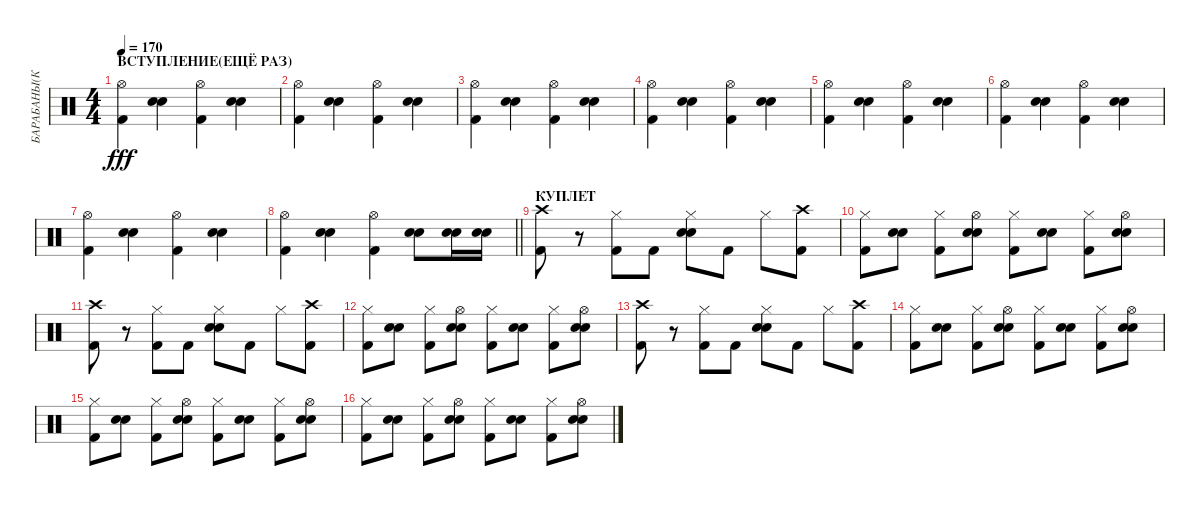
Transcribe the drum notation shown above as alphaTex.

\track ("БАРАБАНЫ(КАРДАН)" "БАРАБАНЫ(К") {instrument percussion}
\staff {score}
\articulation defaults
\ts (4 4)
\section ("" "ВСТУПЛЕНИЕ(ЕЩЁ РАЗ)")
\tempo 170
\clef neutral
\ks c
("Kick (hit) 2" "Hi-Hat (open)").4{dy fff} ("Snare (hit) 2" "Electric Snare (hit)").4 ("Kick (hit) 2" "Hi-Hat (open)").4 ("Electric Snare (hit)" "Snare (hit) 2").4 |
("Kick (hit) 2" "Hi-Hat (open)").4 ("Snare (hit) 2" "Electric Snare (hit)").4 ("Kick (hit) 2" "Hi-Hat (open)").4 ("Electric Snare (hit)" "Snare (hit) 2").4 |
("Kick (hit) 2" "Hi-Hat (open)").4 ("Snare (hit) 2" "Electric Snare (hit)").4 ("Kick (hit) 2" "Hi-Hat (open)").4 ("Electric Snare (hit)" "Snare (hit) 2").4 |
("Kick (hit) 2" "Hi-Hat (open)").4 ("Snare (hit) 2" "Electric Snare (hit)").4 ("Kick (hit) 2" "Hi-Hat (open)").4 ("Electric Snare (hit)" "Snare (hit) 2").4 |
("Kick (hit) 2" "Hi-Hat (open)").4 ("Snare (hit) 2" "Electric Snare (hit)").4 ("Kick (hit) 2" "Hi-Hat (open)").4 ("Electric Snare (hit)" "Snare (hit) 2").4 |
("Kick (hit) 2" "Hi-Hat (open)").4 ("Snare (hit) 2" "Electric Snare (hit)").4 ("Kick (hit) 2" "Hi-Hat (open)").4 ("Electric Snare (hit)" "Snare (hit) 2").4 |
("Kick (hit) 2" "Hi-Hat (open)").4 ("Snare (hit) 2" "Electric Snare (hit)").4 ("Kick (hit) 2" "Hi-Hat (open)").4 ("Electric Snare (hit)" "Snare (hit) 2").4 |
\barLineRight lightlight
("Kick (hit) 2" "Hi-Hat (open)").4 ("Snare (hit) 2" "Electric Snare (hit)").4 ("Kick (hit) 2" "Hi-Hat (open)").4 ("Electric Snare (hit)" "Snare (hit) 2").8 ("Electric Snare (hit)" "Snare (hit) 2").16 ("Electric Snare (hit)" "Snare (hit) 2").16 |
\section ("" "КУПЛЕТ")
("Kick (hit) 2" "Crash high (hit)").8 r.8 ("Kick (hit) 2" "Hi-Hat (closed)").8 "Kick (hit) 2".8 ("Snare (hit) 2" "Electric Snare (hit)" "Hi-Hat (closed)").8 "Kick (hit) 2".8 "Hi-Hat (closed)".8 ("Kick (hit) 2" "Crash high (hit)").8 |
("Kick (hit) 2" "Hi-Hat (closed)").8 ("Snare (hit) 2" "Electric Snare (hit)").8 ("Kick (hit) 2" "Hi-Hat (closed)").8 ("Electric Snare (hit)" "Snare (hit) 2" "Hi-Hat (open)").8 ("Kick (hit) 2" "Hi-Hat (closed)").8 ("Snare (hit) 2" "Electric Snare (hit)").8 ("Kick (hit) 2" "Hi-Hat (closed)").8 ("Electric Snare (hit)" "Snare (hit) 2" "Hi-Hat (open)").8 |
("Kick (hit) 2" "Crash high (hit)").8 r.8 ("Kick (hit) 2" "Hi-Hat (closed)").8 "Kick (hit) 2".8 ("Snare (hit) 2" "Electric Snare (hit)" "Hi-Hat (closed)").8 "Kick (hit) 2".8 "Hi-Hat (closed)".8 ("Kick (hit) 2" "Crash high (hit)").8 |
("Kick (hit) 2" "Hi-Hat (closed)").8 ("Snare (hit) 2" "Electric Snare (hit)").8 ("Kick (hit) 2" "Hi-Hat (closed)").8 ("Electric Snare (hit)" "Snare (hit) 2" "Hi-Hat (open)").8 ("Kick (hit) 2" "Hi-Hat (closed)").8 ("Snare (hit) 2" "Electric Snare (hit)").8 ("Kick (hit) 2" "Hi-Hat (closed)").8 ("Electric Snare (hit)" "Snare (hit) 2" "Hi-Hat (open)").8 |
("Kick (hit) 2" "Crash high (hit)").8 r.8 ("Kick (hit) 2" "Hi-Hat (closed)").8 "Kick (hit) 2".8 ("Snare (hit) 2" "Electric Snare (hit)" "Hi-Hat (closed)").8 "Kick (hit) 2".8 "Hi-Hat (closed)".8 ("Kick (hit) 2" "Crash high (hit)").8 |
("Kick (hit) 2" "Hi-Hat (closed)").8 ("Snare (hit) 2" "Electric Snare (hit)").8 ("Kick (hit) 2" "Hi-Hat (closed)").8 ("Electric Snare (hit)" "Snare (hit) 2" "Hi-Hat (open)").8 ("Kick (hit) 2" "Hi-Hat (closed)").8 ("Snare (hit) 2" "Electric Snare (hit)").8 ("Kick (hit) 2" "Hi-Hat (closed)").8 ("Electric Snare (hit)" "Snare (hit) 2" "Hi-Hat (open)").8 |
("Kick (hit) 2" "Hi-Hat (closed)").8 ("Snare (hit) 2" "Electric Snare (hit)").8 ("Kick (hit) 2" "Hi-Hat (closed)").8 ("Electric Snare (hit)" "Snare (hit) 2" "Hi-Hat (open)").8 ("Kick (hit) 2" "Hi-Hat (closed)").8 ("Snare (hit) 2" "Electric Snare (hit)").8 ("Kick (hit) 2" "Hi-Hat (closed)").8 ("Electric Snare (hit)" "Snare (hit) 2" "Hi-Hat (open)").8 |
("Kick (hit) 2" "Hi-Hat (closed)").8 ("Snare (hit) 2" "Electric Snare (hit)").8 ("Kick (hit) 2" "Hi-Hat (closed)").8 ("Electric Snare (hit)" "Snare (hit) 2" "Hi-Hat (open)").8 ("Kick (hit) 2" "Hi-Hat (closed)").8 ("Snare (hit) 2" "Electric Snare (hit)").8 ("Kick (hit) 2" "Hi-Hat (closed)").8 ("Electric Snare (hit)" "Snare (hit) 2" "Hi-Hat (open)").8
